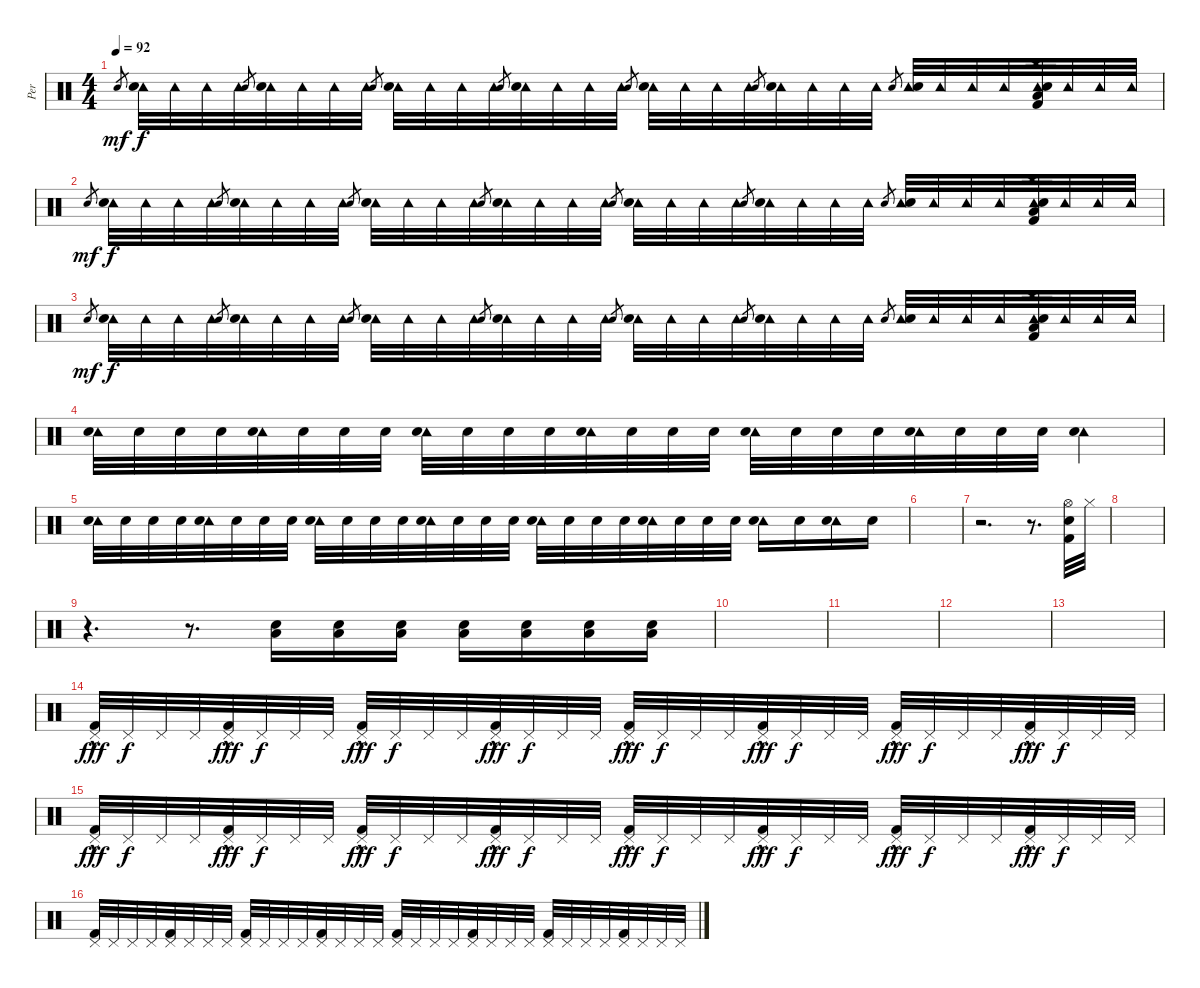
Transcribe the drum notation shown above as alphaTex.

\track ("Per" "Per") {instrument percussion}
\staff {score}
\articulation defaults
\ts (4 4)
\tempo 92
\clef neutral
\ks c "Snare (hit) 2".8{gr dy mf}
("Tambourine (hit)" "Snare (hit) 2").32{dy f} "Tambourine (hit)".32 "Tambourine (hit)".32 "Tambourine (hit)".32 "Snare (hit) 2".8{gr} ("Tambourine (hit)" "Snare (hit) 2").32 "Tambourine (hit)".32 "Tambourine (hit)".32 "Tambourine (hit)".32 "Snare (hit) 2".8{gr} ("Tambourine (hit)" "Snare (hit) 2").32 "Tambourine (hit)".32 "Tambourine (hit)".32 "Tambourine (hit)".32 "Snare (hit) 2".8{gr} ("Tambourine (hit)" "Snare (hit) 2").32 "Tambourine (hit)".32 "Tambourine (hit)".32 "Tambourine (hit)".32 "Snare (hit) 2".8{gr} ("Tambourine (hit)" "Snare (hit) 2").32 "Tambourine (hit)".32 "Tambourine (hit)".32 "Tambourine (hit)".32 "Snare (hit) 2".8{gr} ("Tambourine (hit)" "Snare (hit) 2").32 "Tambourine (hit)".32 "Tambourine (hit)".32 "Tambourine (hit)".32 "Snare (hit) 2".8{gr} ("Tambourine (hit)" "Snare (hit) 2").32 "Tambourine (hit)".32 "Tambourine (hit)".32 "Tambourine (hit)".32 ("Crash high (hit)" "Tambourine (hit)" "Low Floor Tom (hit)" "Snare (hit) 2" "Kick (hit) 2").32 "Tambourine (hit)".32 "Tambourine (hit)".32 "Tambourine (hit)".32 |
"Snare (hit) 2".8{gr dy mf} ("Tambourine (hit)" "Snare (hit) 2").32{dy f} "Tambourine (hit)".32 "Tambourine (hit)".32 "Tambourine (hit)".32 "Snare (hit) 2".8{gr} ("Tambourine (hit)" "Snare (hit) 2").32 "Tambourine (hit)".32 "Tambourine (hit)".32 "Tambourine (hit)".32 "Snare (hit) 2".8{gr} ("Tambourine (hit)" "Snare (hit) 2").32 "Tambourine (hit)".32 "Tambourine (hit)".32 "Tambourine (hit)".32 "Snare (hit) 2".8{gr} ("Tambourine (hit)" "Snare (hit) 2").32 "Tambourine (hit)".32 "Tambourine (hit)".32 "Tambourine (hit)".32 "Snare (hit) 2".8{gr} ("Tambourine (hit)" "Snare (hit) 2").32 "Tambourine (hit)".32 "Tambourine (hit)".32 "Tambourine (hit)".32 "Snare (hit) 2".8{gr} ("Tambourine (hit)" "Snare (hit) 2").32 "Tambourine (hit)".32 "Tambourine (hit)".32 "Tambourine (hit)".32 "Snare (hit) 2".8{gr} ("Tambourine (hit)" "Snare (hit) 2").32 "Tambourine (hit)".32 "Tambourine (hit)".32 "Tambourine (hit)".32 ("Crash high (hit)" "Tambourine (hit)" "Low Floor Tom (hit)" "Snare (hit) 2" "Kick (hit) 2").32 "Tambourine (hit)".32 "Tambourine (hit)".32 "Tambourine (hit)".32 |
"Snare (hit) 2".8{gr dy mf} ("Tambourine (hit)" "Snare (hit) 2").32{dy f} "Tambourine (hit)".32 "Tambourine (hit)".32 "Tambourine (hit)".32 "Snare (hit) 2".8{gr} ("Tambourine (hit)" "Snare (hit) 2").32 "Tambourine (hit)".32 "Tambourine (hit)".32 "Tambourine (hit)".32 "Snare (hit) 2".8{gr} ("Tambourine (hit)" "Snare (hit) 2").32 "Tambourine (hit)".32 "Tambourine (hit)".32 "Tambourine (hit)".32 "Snare (hit) 2".8{gr} ("Tambourine (hit)" "Snare (hit) 2").32 "Tambourine (hit)".32 "Tambourine (hit)".32 "Tambourine (hit)".32 "Snare (hit) 2".8{gr} ("Tambourine (hit)" "Snare (hit) 2").32 "Tambourine (hit)".32 "Tambourine (hit)".32 "Tambourine (hit)".32 "Snare (hit) 2".8{gr} ("Tambourine (hit)" "Snare (hit) 2").32 "Tambourine (hit)".32 "Tambourine (hit)".32 "Tambourine (hit)".32 "Snare (hit) 2".8{gr} ("Tambourine (hit)" "Snare (hit) 2").32 "Tambourine (hit)".32 "Tambourine (hit)".32 "Tambourine (hit)".32 ("Crash high (hit)" "Tambourine (hit)" "Low Floor Tom (hit)" "Snare (hit) 2" "Kick (hit) 2").32 "Tambourine (hit)".32 "Tambourine (hit)".32 "Tambourine (hit)".32 |
("Tambourine (hit)" "Snare (hit) 2").32 "Snare (hit) 2".32 "Snare (hit) 2".32 "Snare (hit) 2".32 ("Tambourine (hit)" "Snare (hit) 2").32 "Snare (hit) 2".32 "Snare (hit) 2".32 "Snare (hit) 2".32 ("Tambourine (hit)" "Snare (hit) 2").32 "Snare (hit) 2".32 "Snare (hit) 2".32 "Snare (hit) 2".32 ("Tambourine (hit)" "Snare (hit) 2").32 "Snare (hit) 2".32 "Snare (hit) 2".32 "Snare (hit) 2".32 ("Tambourine (hit)" "Snare (hit) 2").32 "Snare (hit) 2".32 "Snare (hit) 2".32 "Snare (hit) 2".32 ("Tambourine (hit)" "Snare (hit) 2").32 "Snare (hit) 2".32 "Snare (hit) 2".32 "Snare (hit) 2".32 ("Tambourine (hit)" "Snare (hit) 2").4 |
("Tambourine (hit)" "Snare (hit) 2").32 "Snare (hit) 2".32 "Snare (hit) 2".32 "Snare (hit) 2".32 ("Tambourine (hit)" "Snare (hit) 2").32 "Snare (hit) 2".32 "Snare (hit) 2".32 "Snare (hit) 2".32 ("Tambourine (hit)" "Snare (hit) 2").32 "Snare (hit) 2".32 "Snare (hit) 2".32 "Snare (hit) 2".32 ("Tambourine (hit)" "Snare (hit) 2").32 "Snare (hit) 2".32 "Snare (hit) 2".32 "Snare (hit) 2".32 ("Tambourine (hit)" "Snare (hit) 2").32 "Snare (hit) 2".32 "Snare (hit) 2".32 "Snare (hit) 2".32 ("Tambourine (hit)" "Snare (hit) 2").32 "Snare (hit) 2".32 "Snare (hit) 2".32 "Snare (hit) 2".32 ("Tambourine (hit)" "Snare (hit) 2").16 "Snare (hit) 2".16 ("Tambourine (hit)" "Snare (hit) 2").16 "Snare (hit) 2".16 |
|
r.2{d} r.8{d} ("Hi-Hat (open)" "Snare (hit) 2" "Kick (hit) 2").32 "Hi-Hat (closed)".32 |
|
r.4{d} r.8{d} ("Low Floor Tom (hit)" "Snare (hit) 2").16 ("Low Floor Tom (hit)" "Snare (hit) 2").16 ("Low Floor Tom (hit)" "Snare (hit) 2").16 ("Low Floor Tom (hit)" "Snare (hit) 2").16 ("Low Floor Tom (hit)" "Snare (hit) 2").16 ("Low Floor Tom (hit)" "Snare (hit) 2").16 ("Low Floor Tom (hit)" "Snare (hit) 2").16 |
|
|
|
|
("Pedal Hi-Hat (hit)" "Kick (hit) 2"{hac}).32{dy fff volume 13} "Pedal Hi-Hat (hit)".32{dy f} "Pedal Hi-Hat (hit)".32 "Pedal Hi-Hat (hit)".32 ("Pedal Hi-Hat (hit)" "Kick (hit) 2"{hac}).32{dy fff} "Pedal Hi-Hat (hit)".32{dy f} "Pedal Hi-Hat (hit)".32 "Pedal Hi-Hat (hit)".32 ("Pedal Hi-Hat (hit)" "Kick (hit) 2"{hac}).32{dy fff} "Pedal Hi-Hat (hit)".32{dy f} "Pedal Hi-Hat (hit)".32 "Pedal Hi-Hat (hit)".32 ("Pedal Hi-Hat (hit)" "Kick (hit) 2"{hac}).32{dy fff} "Pedal Hi-Hat (hit)".32{dy f} "Pedal Hi-Hat (hit)".32 "Pedal Hi-Hat (hit)".32 ("Pedal Hi-Hat (hit)" "Kick (hit) 2"{hac}).32{dy fff} "Pedal Hi-Hat (hit)".32{dy f} "Pedal Hi-Hat (hit)".32 "Pedal Hi-Hat (hit)".32 ("Pedal Hi-Hat (hit)" "Kick (hit) 2"{hac}).32{dy fff} "Pedal Hi-Hat (hit)".32{dy f} "Pedal Hi-Hat (hit)".32 "Pedal Hi-Hat (hit)".32 ("Pedal Hi-Hat (hit)" "Kick (hit) 2"{hac}).32{dy fff} "Pedal Hi-Hat (hit)".32{dy f} "Pedal Hi-Hat (hit)".32 "Pedal Hi-Hat (hit)".32 ("Pedal Hi-Hat (hit)" "Kick (hit) 2"{hac}).32{dy fff} "Pedal Hi-Hat (hit)".32{dy f} "Pedal Hi-Hat (hit)".32 "Pedal Hi-Hat (hit)".32 |
("Pedal Hi-Hat (hit)" "Kick (hit) 2"{hac}).32{dy fff} "Pedal Hi-Hat (hit)".32{dy f} "Pedal Hi-Hat (hit)".32 "Pedal Hi-Hat (hit)".32 ("Pedal Hi-Hat (hit)" "Kick (hit) 2"{hac}).32{dy fff} "Pedal Hi-Hat (hit)".32{dy f} "Pedal Hi-Hat (hit)".32 "Pedal Hi-Hat (hit)".32 ("Pedal Hi-Hat (hit)" "Kick (hit) 2"{hac}).32{dy fff} "Pedal Hi-Hat (hit)".32{dy f} "Pedal Hi-Hat (hit)".32 "Pedal Hi-Hat (hit)".32 ("Pedal Hi-Hat (hit)" "Kick (hit) 2"{hac}).32{dy fff} "Pedal Hi-Hat (hit)".32{dy f} "Pedal Hi-Hat (hit)".32 "Pedal Hi-Hat (hit)".32 ("Pedal Hi-Hat (hit)" "Kick (hit) 2"{hac}).32{dy fff} "Pedal Hi-Hat (hit)".32{dy f} "Pedal Hi-Hat (hit)".32 "Pedal Hi-Hat (hit)".32 ("Pedal Hi-Hat (hit)" "Kick (hit) 2"{hac}).32{dy fff} "Pedal Hi-Hat (hit)".32{dy f} "Pedal Hi-Hat (hit)".32 "Pedal Hi-Hat (hit)".32 ("Pedal Hi-Hat (hit)" "Kick (hit) 2"{hac}).32{dy fff} "Pedal Hi-Hat (hit)".32{dy f} "Pedal Hi-Hat (hit)".32 "Pedal Hi-Hat (hit)".32 ("Pedal Hi-Hat (hit)" "Kick (hit) 2"{hac}).32{dy fff} "Pedal Hi-Hat (hit)".32{dy f} "Pedal Hi-Hat (hit)".32 "Pedal Hi-Hat (hit)".32 |
("Pedal Hi-Hat (hit)" "Kick (hit) 2").32 "Pedal Hi-Hat (hit)".32 "Pedal Hi-Hat (hit)".32 "Pedal Hi-Hat (hit)".32 ("Pedal Hi-Hat (hit)" "Kick (hit) 2").32 "Pedal Hi-Hat (hit)".32 "Pedal Hi-Hat (hit)".32 "Pedal Hi-Hat (hit)".32 ("Pedal Hi-Hat (hit)" "Kick (hit) 2").32 "Pedal Hi-Hat (hit)".32 "Pedal Hi-Hat (hit)".32 "Pedal Hi-Hat (hit)".32 ("Pedal Hi-Hat (hit)" "Kick (hit) 2").32 "Pedal Hi-Hat (hit)".32 "Pedal Hi-Hat (hit)".32 "Pedal Hi-Hat (hit)".32 ("Pedal Hi-Hat (hit)" "Kick (hit) 2").32 "Pedal Hi-Hat (hit)".32 "Pedal Hi-Hat (hit)".32 "Pedal Hi-Hat (hit)".32 ("Pedal Hi-Hat (hit)" "Kick (hit) 2").32 "Pedal Hi-Hat (hit)".32 "Pedal Hi-Hat (hit)".32 "Pedal Hi-Hat (hit)".32 ("Pedal Hi-Hat (hit)" "Kick (hit) 2").32 "Pedal Hi-Hat (hit)".32 "Pedal Hi-Hat (hit)".32 "Pedal Hi-Hat (hit)".32 ("Pedal Hi-Hat (hit)" "Kick (hit) 2").32 "Pedal Hi-Hat (hit)".32 "Pedal Hi-Hat (hit)".32 "Pedal Hi-Hat (hit)".32
